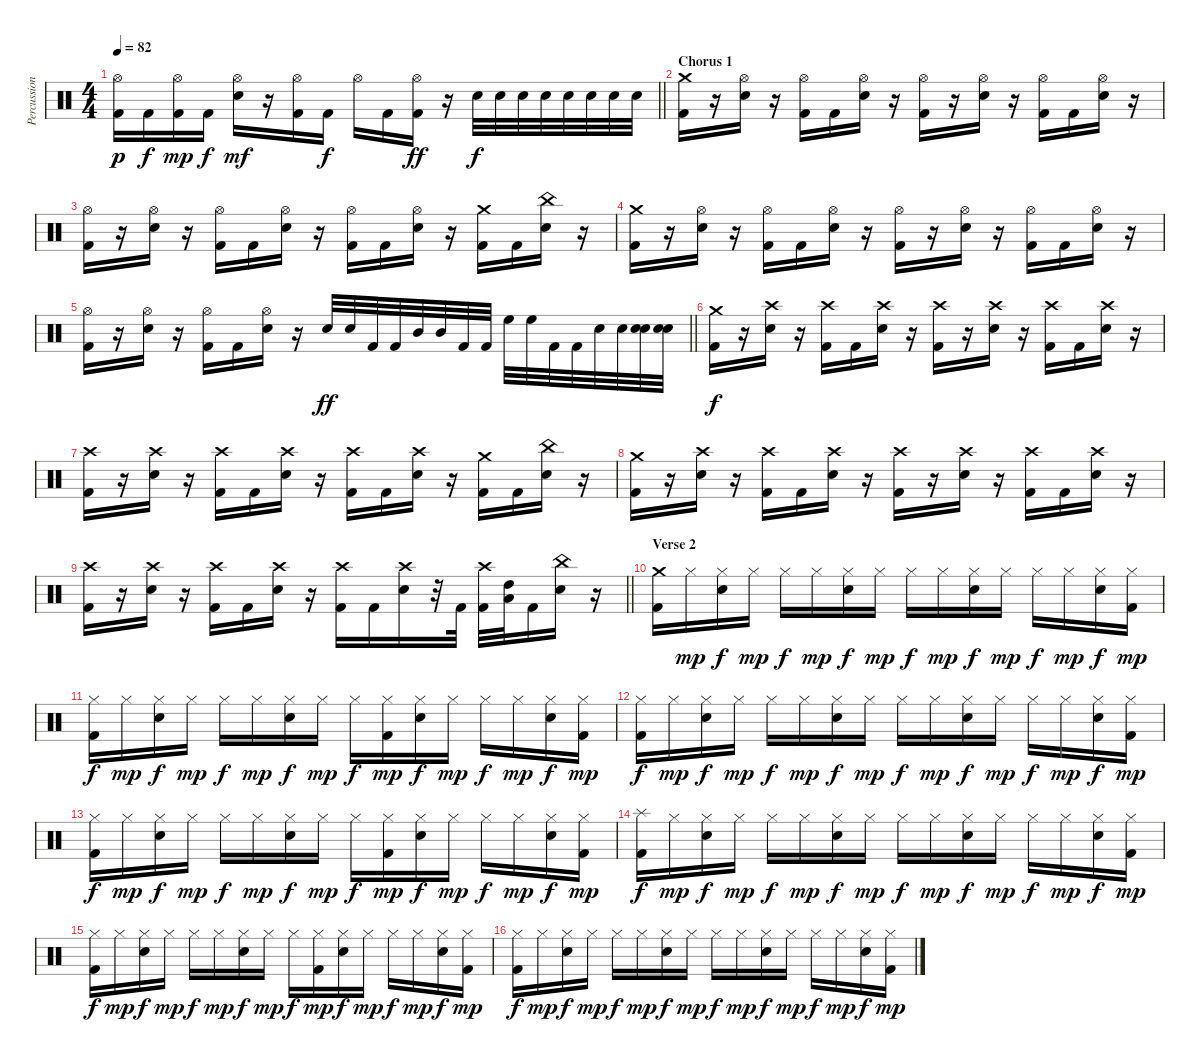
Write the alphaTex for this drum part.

\track ("Percussion" "Percussion") {solo instrument percussion}
\staff {score}
\articulation defaults
\ts (4 4)
\tempo 82
\clef neutral
\barLineRight lightlight
\ks c
("Hi-Hat (open)" "Kick (hit) 2").16{dy p} "Kick (hit) 2".16{dy f} ("Hi-Hat (open)" "Kick (hit) 2").16{dy mp} "Kick (hit) 2".16{dy f} ("Hi-Hat (open)" "Electric Snare (hit)").16{dy mf} r.16 ("Hi-Hat (open)" "Kick (hit) 2").16 "Kick (hit) 2".16{dy f} "Hi-Hat (open)".16 "Kick (hit) 2".16 ("Hi-Hat (open)" "Kick (hit) 2").16{dy ff} r.16 "Electric Snare (hit)".32{dy f} "Electric Snare (hit)".32 "Electric Snare (hit)".32 "Electric Snare (hit)".32 "Electric Snare (hit)".32 "Electric Snare (hit)".32 "Electric Snare (hit)".32 "Electric Snare (hit)".32 |
\section ("" "Chorus 1")
("Crash medium (hit)" "Kick (hit) 2").16 r.16 ("Hi-Hat (open)" "Electric Snare (hit)").16 r.16 ("Hi-Hat (open)" "Kick (hit) 2").16 "Kick (hit) 2".16 ("Hi-Hat (open)" "Electric Snare (hit)").16 r.16 ("Hi-Hat (open)" "Kick (hit) 2").16 r.16 ("Hi-Hat (open)" "Electric Snare (hit)").16 r.16 ("Hi-Hat (open)" "Kick (hit) 2").16 "Kick (hit) 2".16 ("Hi-Hat (open)" "Electric Snare (hit)").16 r.16 |
("Hi-Hat (open)" "Kick (hit) 2").16 r.16 ("Hi-Hat (open)" "Electric Snare (hit)").16 r.16 ("Hi-Hat (open)" "Kick (hit) 2").16 "Kick (hit) 2".16 ("Hi-Hat (open)" "Electric Snare (hit)").16 r.16 ("Hi-Hat (open)" "Kick (hit) 2").16 "Kick (hit) 2".16 ("Hi-Hat (open)" "Electric Snare (hit)").16 r.16 ("Crash medium (hit)" "Kick (hit) 2").16 "Kick (hit) 2".16 ("China (hit)" "Electric Snare (hit)").16 r.16 |
("Crash medium (hit)" "Kick (hit) 2").16 r.16 ("Hi-Hat (open)" "Electric Snare (hit)").16 r.16 ("Hi-Hat (open)" "Kick (hit) 2").16 "Kick (hit) 2".16 ("Hi-Hat (open)" "Electric Snare (hit)").16 r.16 ("Hi-Hat (open)" "Kick (hit) 2").16 r.16 ("Hi-Hat (open)" "Electric Snare (hit)").16 r.16 ("Hi-Hat (open)" "Kick (hit) 2").16 "Kick (hit) 2".16 ("Hi-Hat (open)" "Electric Snare (hit)").16 r.16 |
\barLineRight lightlight
("Hi-Hat (open)" "Kick (hit) 2").16 r.16 ("Hi-Hat (open)" "Electric Snare (hit)").16 r.16 ("Hi-Hat (open)" "Kick (hit) 2").16 "Kick (hit) 2".16 ("Hi-Hat (open)" "Electric Snare (hit)").16 r.16 "Electric Snare (hit)".32{dy ff} "Electric Snare (hit)".32 "Kick (hit) 2".32 "Kick (hit) 2".32 "Mid Tom (hit)".32 "Mid Tom (hit)".32 "Kick (hit) 2".32 "Kick (hit) 2".32 "High Floor Tom (hit)".32 "High Floor Tom (hit)".32 "Kick (hit) 2".32 "Kick (hit) 2".32 "Electric Snare (hit)".32 "Electric Snare (hit)".32 ("Electric Snare (hit)" "Electric Snare (hit)").32 ("Electric Snare (hit)" "Electric Snare (hit)").32 |
("Crash medium (hit)" "Kick (hit) 2").16{dy f} r.16 ("Crash high (hit)" "Electric Snare (hit)").16 r.16 ("Crash high (hit)" "Kick (hit) 2").16 "Kick (hit) 2".16 ("Crash high (hit)" "Electric Snare (hit)").16 r.16 ("Crash high (hit)" "Kick (hit) 2").16 r.16 ("Crash high (hit)" "Electric Snare (hit)").16 r.16 ("Crash high (hit)" "Kick (hit) 2").16 "Kick (hit) 2".16 ("Crash high (hit)" "Electric Snare (hit)").16 r.16 |
("Crash high (hit)" "Kick (hit) 2").16 r.16 ("Crash high (hit)" "Electric Snare (hit)").16 r.16 ("Crash high (hit)" "Kick (hit) 2").16 "Kick (hit) 2".16 ("Crash high (hit)" "Electric Snare (hit)").16 r.16 ("Crash high (hit)" "Kick (hit) 2").16 "Kick (hit) 2".16 ("Crash high (hit)" "Electric Snare (hit)").16 r.16 ("Crash medium (hit)" "Kick (hit) 2").16 "Kick (hit) 2".16 ("China (hit)" "Electric Snare (hit)").16 r.16 |
("Crash medium (hit)" "Kick (hit) 2").16 r.16 ("Crash high (hit)" "Electric Snare (hit)").16 r.16 ("Crash high (hit)" "Kick (hit) 2").16 "Kick (hit) 2".16 ("Crash high (hit)" "Electric Snare (hit)").16 r.16 ("Crash high (hit)" "Kick (hit) 2").16 r.16 ("Crash high (hit)" "Electric Snare (hit)").16 r.16 ("Crash high (hit)" "Kick (hit) 2").16 "Kick (hit) 2".16 ("Crash high (hit)" "Electric Snare (hit)").16 r.16 |
\barLineRight lightlight
("Crash high (hit)" "Kick (hit) 2").16 r.16 ("Crash high (hit)" "Electric Snare (hit)").16 r.16 ("Crash high (hit)" "Kick (hit) 2").16 "Kick (hit) 2".16 ("Crash high (hit)" "Electric Snare (hit)").16 r.16 ("Crash high (hit)" "Kick (hit) 2").16 "Kick (hit) 2".16 ("Crash high (hit)" "Electric Snare (hit)").16 r.32 "Kick (hit) 2".32 ("Crash high (hit)" "Kick (hit) 2").32 ("Low Tom (hit)" "High Tom (hit)").32 "Kick (hit) 2".16 ("China (hit)" "Electric Snare (hit)").16 r.16 |
\section ("" "Verse 2")
("Crash medium (hit)" "Kick (hit) 2").16 "Hi-Hat (closed)".16{dy mp} ("Hi-Hat (closed)" "Electric Snare (hit)").16{dy f} "Hi-Hat (closed)".16{dy mp} "Hi-Hat (closed)".16{dy f} "Hi-Hat (closed)".16{dy mp} ("Hi-Hat (closed)" "Electric Snare (hit)").16{dy f} "Hi-Hat (closed)".16{dy mp} "Hi-Hat (closed)".16{dy f} "Hi-Hat (closed)".16{dy mp} ("Hi-Hat (closed)" "Electric Snare (hit)").16{dy f} "Hi-Hat (closed)".16{dy mp} "Hi-Hat (closed)".16{dy f} "Hi-Hat (closed)".16{dy mp} ("Hi-Hat (closed)" "Electric Snare (hit)").16{dy f} ("Hi-Hat (closed)" "Kick (hit) 2").16{dy mp} |
("Hi-Hat (closed)" "Kick (hit) 2").16{dy f} "Hi-Hat (closed)".16{dy mp} ("Hi-Hat (closed)" "Electric Snare (hit)").16{dy f} "Hi-Hat (closed)".16{dy mp} "Hi-Hat (closed)".16{dy f} "Hi-Hat (closed)".16{dy mp} ("Hi-Hat (closed)" "Electric Snare (hit)").16{dy f} "Hi-Hat (closed)".16{dy mp} "Hi-Hat (closed)".16{dy f} ("Hi-Hat (closed)" "Kick (hit) 2").16{dy mp} ("Hi-Hat (closed)" "Electric Snare (hit)").16{dy f} "Hi-Hat (closed)".16{dy mp} "Hi-Hat (closed)".16{dy f} "Hi-Hat (closed)".16{dy mp} ("Hi-Hat (closed)" "Electric Snare (hit)").16{dy f} ("Hi-Hat (closed)" "Kick (hit) 2").16{dy mp} |
("Hi-Hat (closed)" "Kick (hit) 2").16{dy f} "Hi-Hat (closed)".16{dy mp} ("Hi-Hat (closed)" "Electric Snare (hit)").16{dy f} "Hi-Hat (closed)".16{dy mp} "Hi-Hat (closed)".16{dy f} "Hi-Hat (closed)".16{dy mp} ("Hi-Hat (closed)" "Electric Snare (hit)").16{dy f} "Hi-Hat (closed)".16{dy mp} "Hi-Hat (closed)".16{dy f} "Hi-Hat (closed)".16{dy mp} ("Hi-Hat (closed)" "Electric Snare (hit)").16{dy f} "Hi-Hat (closed)".16{dy mp} "Hi-Hat (closed)".16{dy f} "Hi-Hat (closed)".16{dy mp} ("Hi-Hat (closed)" "Electric Snare (hit)").16{dy f} ("Hi-Hat (closed)" "Kick (hit) 2").16{dy mp} |
("Hi-Hat (closed)" "Kick (hit) 2").16{dy f} "Hi-Hat (closed)".16{dy mp} ("Hi-Hat (closed)" "Electric Snare (hit)").16{dy f} "Hi-Hat (closed)".16{dy mp} "Hi-Hat (closed)".16{dy f} "Hi-Hat (closed)".16{dy mp} ("Hi-Hat (closed)" "Electric Snare (hit)").16{dy f} "Hi-Hat (closed)".16{dy mp} "Hi-Hat (closed)".16{dy f} ("Hi-Hat (closed)" "Kick (hit) 2").16{dy mp} ("Hi-Hat (closed)" "Electric Snare (hit)").16{dy f} "Hi-Hat (closed)".16{dy mp} "Hi-Hat (closed)".16{dy f} "Hi-Hat (closed)".16{dy mp} ("Hi-Hat (closed)" "Electric Snare (hit)").16{dy f} ("Hi-Hat (closed)" "Kick (hit) 2").16{dy mp} |
("Splash (hit)" "Kick (hit) 2").16{dy f} "Hi-Hat (closed)".16{dy mp} ("Hi-Hat (closed)" "Electric Snare (hit)").16{dy f} "Hi-Hat (closed)".16{dy mp} "Hi-Hat (closed)".16{dy f} "Hi-Hat (closed)".16{dy mp} ("Hi-Hat (closed)" "Electric Snare (hit)").16{dy f} "Hi-Hat (closed)".16{dy mp} "Hi-Hat (closed)".16{dy f} "Hi-Hat (closed)".16{dy mp} ("Hi-Hat (closed)" "Electric Snare (hit)").16{dy f} "Hi-Hat (closed)".16{dy mp} "Hi-Hat (closed)".16{dy f} "Hi-Hat (closed)".16{dy mp} ("Hi-Hat (closed)" "Electric Snare (hit)").16{dy f} ("Hi-Hat (closed)" "Kick (hit) 2").16{dy mp} |
("Hi-Hat (closed)" "Kick (hit) 2").16{dy f} "Hi-Hat (closed)".16{dy mp} ("Hi-Hat (closed)" "Electric Snare (hit)").16{dy f} "Hi-Hat (closed)".16{dy mp} "Hi-Hat (closed)".16{dy f} "Hi-Hat (closed)".16{dy mp} ("Hi-Hat (closed)" "Electric Snare (hit)").16{dy f} "Hi-Hat (closed)".16{dy mp} "Hi-Hat (closed)".16{dy f} ("Hi-Hat (closed)" "Kick (hit) 2").16{dy mp} ("Hi-Hat (closed)" "Electric Snare (hit)").16{dy f} "Hi-Hat (closed)".16{dy mp} "Hi-Hat (closed)".16{dy f} "Hi-Hat (closed)".16{dy mp} ("Hi-Hat (closed)" "Electric Snare (hit)").16{dy f} ("Hi-Hat (closed)" "Kick (hit) 2").16{dy mp} |
("Hi-Hat (closed)" "Kick (hit) 2").16{dy f} "Hi-Hat (closed)".16{dy mp} ("Hi-Hat (closed)" "Electric Snare (hit)").16{dy f} "Hi-Hat (closed)".16{dy mp} "Hi-Hat (closed)".16{dy f} "Hi-Hat (closed)".16{dy mp} ("Hi-Hat (closed)" "Electric Snare (hit)").16{dy f} "Hi-Hat (closed)".16{dy mp} "Hi-Hat (closed)".16{dy f} "Hi-Hat (closed)".16{dy mp} ("Hi-Hat (closed)" "Electric Snare (hit)").16{dy f} "Hi-Hat (closed)".16{dy mp} "Hi-Hat (closed)".16{dy f} "Hi-Hat (closed)".16{dy mp} ("Hi-Hat (closed)" "Electric Snare (hit)").16{dy f} ("Hi-Hat (closed)" "Kick (hit) 2").16{dy mp}
